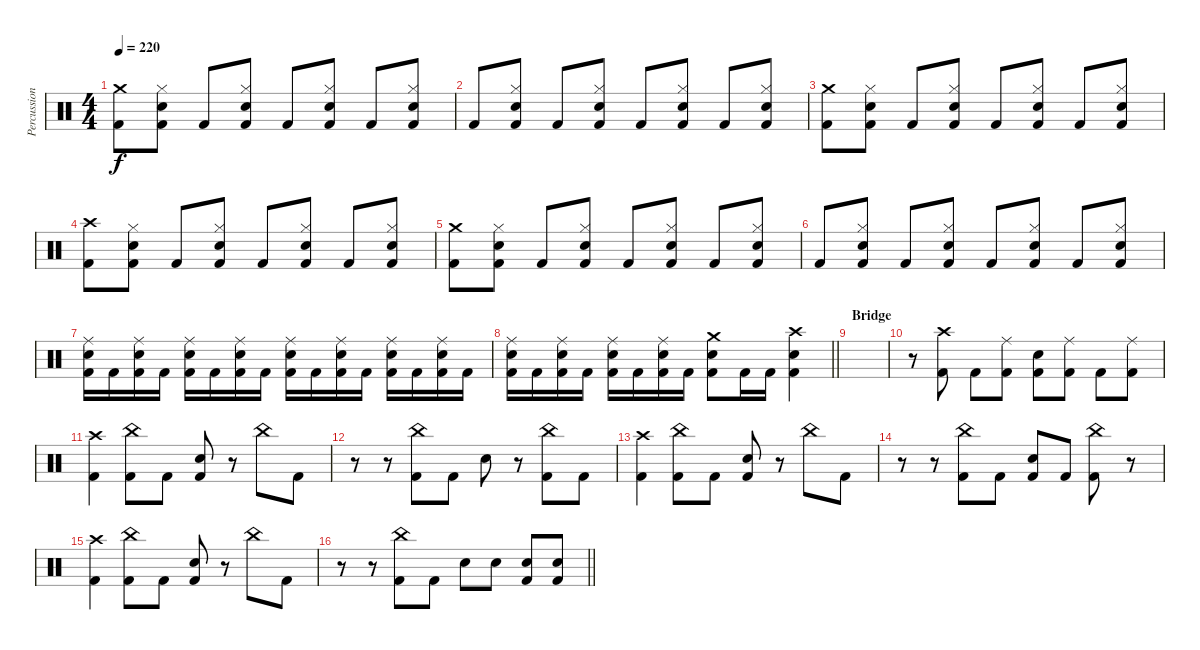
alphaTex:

\track ("Percussion" "Percussion") {instrument percussion}
\staff {score}
\articulation defaults
\ts (4 4)
\tempo 220
\clef neutral
\ks c
("Crash medium (hit)" "Kick (hit) 2").8{dy f} ("Hi-Hat (closed)" "Electric Snare (hit)" "Kick (hit) 2").8 "Kick (hit) 2".8 ("Hi-Hat (closed)" "Electric Snare (hit)" "Kick (hit) 2").8 "Kick (hit) 2".8 ("Hi-Hat (closed)" "Electric Snare (hit)" "Kick (hit) 2").8 "Kick (hit) 2".8 ("Hi-Hat (closed)" "Electric Snare (hit)" "Kick (hit) 2").8 |
"Kick (hit) 2".8 ("Hi-Hat (closed)" "Electric Snare (hit)" "Kick (hit) 2").8 "Kick (hit) 2".8 ("Hi-Hat (closed)" "Electric Snare (hit)" "Kick (hit) 2").8 "Kick (hit) 2".8 ("Hi-Hat (closed)" "Electric Snare (hit)" "Kick (hit) 2").8 "Kick (hit) 2".8 ("Hi-Hat (closed)" "Electric Snare (hit)" "Kick (hit) 2").8 |
("Crash medium (hit)" "Kick (hit) 2").8 ("Hi-Hat (closed)" "Electric Snare (hit)" "Kick (hit) 2").8 "Kick (hit) 2".8 ("Hi-Hat (closed)" "Electric Snare (hit)" "Kick (hit) 2").8 "Kick (hit) 2".8 ("Hi-Hat (closed)" "Electric Snare (hit)" "Kick (hit) 2").8 "Kick (hit) 2".8 ("Hi-Hat (closed)" "Electric Snare (hit)" "Kick (hit) 2").8 |
("Crash high (hit)" "Kick (hit) 2").8 ("Hi-Hat (closed)" "Electric Snare (hit)" "Kick (hit) 2").8 "Kick (hit) 2".8 ("Hi-Hat (closed)" "Electric Snare (hit)" "Kick (hit) 2").8 "Kick (hit) 2".8 ("Hi-Hat (closed)" "Electric Snare (hit)" "Kick (hit) 2").8 "Kick (hit) 2".8 ("Hi-Hat (closed)" "Electric Snare (hit)" "Kick (hit) 2").8 |
("Crash medium (hit)" "Kick (hit) 2").8 ("Hi-Hat (closed)" "Electric Snare (hit)" "Kick (hit) 2").8 "Kick (hit) 2".8 ("Hi-Hat (closed)" "Electric Snare (hit)" "Kick (hit) 2").8 "Kick (hit) 2".8 ("Hi-Hat (closed)" "Electric Snare (hit)" "Kick (hit) 2").8 "Kick (hit) 2".8 ("Hi-Hat (closed)" "Electric Snare (hit)" "Kick (hit) 2").8 |
"Kick (hit) 2".8 ("Hi-Hat (closed)" "Electric Snare (hit)" "Kick (hit) 2").8 "Kick (hit) 2".8 ("Hi-Hat (closed)" "Electric Snare (hit)" "Kick (hit) 2").8 "Kick (hit) 2".8 ("Hi-Hat (closed)" "Electric Snare (hit)" "Kick (hit) 2").8 "Kick (hit) 2".8 ("Hi-Hat (closed)" "Electric Snare (hit)" "Kick (hit) 2").8 |
("Ride (middle)" "Electric Snare (hit)" "Kick (hit) 2").16 "Kick (hit) 2".16 ("Ride (middle)" "Electric Snare (hit)" "Kick (hit) 2").16 "Kick (hit) 2".16 ("Ride (middle)" "Electric Snare (hit)" "Kick (hit) 2").16 "Kick (hit) 2".16 ("Ride (middle)" "Electric Snare (hit)" "Kick (hit) 2").16 "Kick (hit) 2".16 ("Ride (middle)" "Electric Snare (hit)" "Kick (hit) 2").16 "Kick (hit) 2".16 ("Ride (middle)" "Electric Snare (hit)" "Kick (hit) 2").16 "Kick (hit) 2".16 ("Ride (middle)" "Electric Snare (hit)" "Kick (hit) 2").16 "Kick (hit) 2".16 ("Ride (middle)" "Electric Snare (hit)" "Kick (hit) 2").16 "Kick (hit) 2".16 |
\barLineRight lightlight
("Ride (middle)" "Electric Snare (hit)" "Kick (hit) 2").16 "Kick (hit) 2".16 ("Ride (middle)" "Electric Snare (hit)" "Kick (hit) 2").16 "Kick (hit) 2".16 ("Ride (middle)" "Electric Snare (hit)" "Kick (hit) 2").16 "Kick (hit) 2".16 ("Ride (middle)" "Electric Snare (hit)" "Kick (hit) 2").16 "Kick (hit) 2".16 ("Crash medium (hit)" "Electric Snare (hit)" "Kick (hit) 2").8 "Kick (hit) 2".16 "Kick (hit) 2".16 ("Crash high (hit)" "Electric Snare (hit)" "Kick (hit) 2").4 |
\section ("" "Bridge")
|
r.8 ("Crash high (hit)" "Kick (hit) 2").8 "Kick (hit) 2".8 ("Ride (middle)" "Kick (hit) 2").8 ("Electric Snare (hit)" "Kick (hit) 2").8 ("Ride (middle)" "Kick (hit) 2").8 "Kick (hit) 2".8 ("Ride (middle)" "Kick (hit) 2").8 |
("Crash high (hit)" "Kick (hit) 2").4 ("China (hit)" "Kick (hit) 2").8 "Kick (hit) 2".8 ("Electric Snare (hit)" "Kick (hit) 2").8 r.8 "China (hit)".8 "Kick (hit) 2".8 |
r.8 r.8 ("China (hit)" "Kick (hit) 2").8 "Kick (hit) 2".8 "Electric Snare (hit)".8 r.8 ("China (hit)" "Kick (hit) 2").8 "Kick (hit) 2".8 |
("Crash high (hit)" "Kick (hit) 2").4 ("China (hit)" "Kick (hit) 2").8 "Kick (hit) 2".8 ("Electric Snare (hit)" "Kick (hit) 2").8 r.8 "China (hit)".8 "Kick (hit) 2".8 |
r.8 r.8 ("China (hit)" "Kick (hit) 2").8 "Kick (hit) 2".8 ("Electric Snare (hit)" "Kick (hit) 2").8 "Kick (hit) 2".8 ("China (hit)" "Kick (hit) 2").8 r.8 |
("Crash high (hit)" "Kick (hit) 2").4 ("China (hit)" "Kick (hit) 2").8 "Kick (hit) 2".8 ("Electric Snare (hit)" "Kick (hit) 2").8 r.8 "China (hit)".8 "Kick (hit) 2".8 |
\barLineRight lightlight
r.8 r.8 ("China (hit)" "Kick (hit) 2").8 "Kick (hit) 2".8 "Electric Snare (hit)".8 "Electric Snare (hit)".8 ("Electric Snare (hit)" "Kick (hit) 2").8 ("Electric Snare (hit)" "Kick (hit) 2").8
